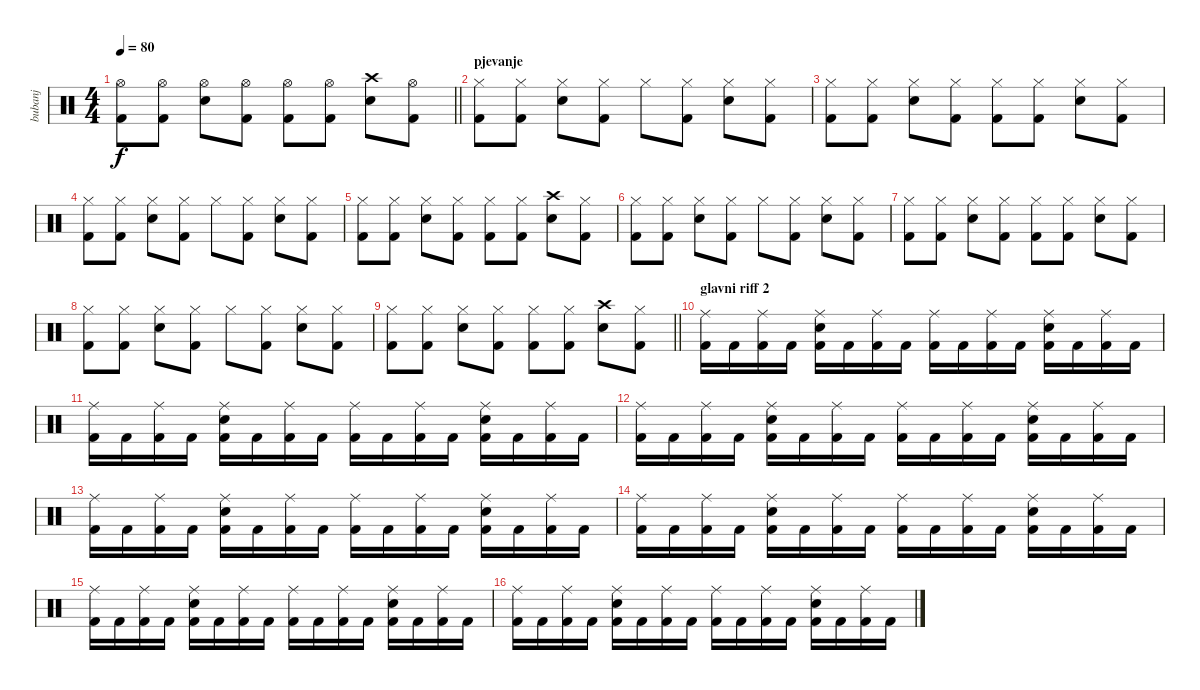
\track ("bubanj" "bubanj") {instrument percussion}
\staff {score}
\articulation defaults
\ts (4 4)
\tempo 80
\clef neutral
\barLineRight lightlight
\ks c
("Hi-Hat (open)" "Kick (hit) 2").8{dy f} ("Hi-Hat (open)" "Kick (hit) 2").8 ("Hi-Hat (open)" "Electric Snare (hit)").8 ("Hi-Hat (open)" "Kick (hit) 2").8 ("Hi-Hat (open)" "Kick (hit) 2").8 ("Hi-Hat (open)" "Kick (hit) 2").8 ("Crash high (hit)" "Electric Snare (hit)").8 ("Hi-Hat (open)" "Kick (hit) 2").8 |
\section ("" "pjevanje")
("Hi-Hat (closed)" "Kick (hit) 2").8 ("Hi-Hat (closed)" "Kick (hit) 2").8 ("Hi-Hat (closed)" "Electric Snare (hit)").8 ("Hi-Hat (closed)" "Kick (hit) 2").8 "Hi-Hat (closed)".8 ("Hi-Hat (closed)" "Kick (hit) 2").8 ("Hi-Hat (closed)" "Electric Snare (hit)").8 ("Hi-Hat (closed)" "Kick (hit) 2").8 |
("Hi-Hat (closed)" "Kick (hit) 2").8 ("Hi-Hat (closed)" "Kick (hit) 2").8 ("Hi-Hat (closed)" "Electric Snare (hit)").8 ("Hi-Hat (closed)" "Kick (hit) 2").8 ("Hi-Hat (closed)" "Kick (hit) 2").8 ("Hi-Hat (closed)" "Kick (hit) 2").8 ("Hi-Hat (closed)" "Electric Snare (hit)").8 ("Hi-Hat (closed)" "Kick (hit) 2").8 |
("Hi-Hat (closed)" "Kick (hit) 2").8 ("Hi-Hat (closed)" "Kick (hit) 2").8 ("Hi-Hat (closed)" "Electric Snare (hit)").8 ("Hi-Hat (closed)" "Kick (hit) 2").8 "Hi-Hat (closed)".8 ("Hi-Hat (closed)" "Kick (hit) 2").8 ("Hi-Hat (closed)" "Electric Snare (hit)").8 ("Hi-Hat (closed)" "Kick (hit) 2").8 |
("Hi-Hat (closed)" "Kick (hit) 2").8 ("Hi-Hat (closed)" "Kick (hit) 2").8 ("Hi-Hat (closed)" "Electric Snare (hit)").8 ("Hi-Hat (closed)" "Kick (hit) 2").8 ("Hi-Hat (closed)" "Kick (hit) 2").8 ("Hi-Hat (closed)" "Kick (hit) 2").8 ("Crash high (hit)" "Electric Snare (hit)").8 ("Hi-Hat (closed)" "Kick (hit) 2").8 |
("Hi-Hat (closed)" "Kick (hit) 2").8 ("Hi-Hat (closed)" "Kick (hit) 2").8 ("Hi-Hat (closed)" "Electric Snare (hit)").8 ("Hi-Hat (closed)" "Kick (hit) 2").8 "Hi-Hat (closed)".8 ("Hi-Hat (closed)" "Kick (hit) 2").8 ("Hi-Hat (closed)" "Electric Snare (hit)").8 ("Hi-Hat (closed)" "Kick (hit) 2").8 |
("Hi-Hat (closed)" "Kick (hit) 2").8 ("Hi-Hat (closed)" "Kick (hit) 2").8 ("Hi-Hat (closed)" "Electric Snare (hit)").8 ("Hi-Hat (closed)" "Kick (hit) 2").8 ("Hi-Hat (closed)" "Kick (hit) 2").8 ("Hi-Hat (closed)" "Kick (hit) 2").8 ("Hi-Hat (closed)" "Electric Snare (hit)").8 ("Hi-Hat (closed)" "Kick (hit) 2").8 |
("Hi-Hat (closed)" "Kick (hit) 2").8 ("Hi-Hat (closed)" "Kick (hit) 2").8 ("Hi-Hat (closed)" "Electric Snare (hit)").8 ("Hi-Hat (closed)" "Kick (hit) 2").8 "Hi-Hat (closed)".8 ("Hi-Hat (closed)" "Kick (hit) 2").8 ("Hi-Hat (closed)" "Electric Snare (hit)").8 ("Hi-Hat (closed)" "Kick (hit) 2").8 |
\barLineRight lightlight
("Hi-Hat (closed)" "Kick (hit) 2").8 ("Hi-Hat (closed)" "Kick (hit) 2").8 ("Hi-Hat (closed)" "Electric Snare (hit)").8 ("Hi-Hat (closed)" "Kick (hit) 2").8 ("Hi-Hat (closed)" "Kick (hit) 2").8 ("Hi-Hat (closed)" "Kick (hit) 2").8 ("Crash high (hit)" "Electric Snare (hit)").8 ("Hi-Hat (closed)" "Kick (hit) 2").8 |
\section ("" "glavni riff 2")
("Ride (middle)" "Kick (hit) 2").16 "Kick (hit) 2".16 ("Ride (middle)" "Kick (hit) 2").16 "Kick (hit) 2".16 ("Ride (middle)" "Electric Snare (hit)" "Kick (hit) 2").16 "Kick (hit) 2".16 ("Ride (middle)" "Kick (hit) 2").16 "Kick (hit) 2".16 ("Ride (middle)" "Kick (hit) 2").16 "Kick (hit) 2".16 ("Ride (middle)" "Kick (hit) 2").16 "Kick (hit) 2".16 ("Ride (middle)" "Electric Snare (hit)" "Kick (hit) 2").16 "Kick (hit) 2".16 ("Ride (middle)" "Kick (hit) 2").16 "Kick (hit) 2".16 |
("Ride (middle)" "Kick (hit) 2").16 "Kick (hit) 2".16 ("Ride (middle)" "Kick (hit) 2").16 "Kick (hit) 2".16 ("Ride (middle)" "Electric Snare (hit)" "Kick (hit) 2").16 "Kick (hit) 2".16 ("Ride (middle)" "Kick (hit) 2").16 "Kick (hit) 2".16 ("Ride (middle)" "Kick (hit) 2").16 "Kick (hit) 2".16 ("Ride (middle)" "Kick (hit) 2").16 "Kick (hit) 2".16 ("Ride (middle)" "Electric Snare (hit)" "Kick (hit) 2").16 "Kick (hit) 2".16 ("Ride (middle)" "Kick (hit) 2").16 "Kick (hit) 2".16 |
("Ride (middle)" "Kick (hit) 2").16 "Kick (hit) 2".16 ("Ride (middle)" "Kick (hit) 2").16 "Kick (hit) 2".16 ("Ride (middle)" "Electric Snare (hit)" "Kick (hit) 2").16 "Kick (hit) 2".16 ("Ride (middle)" "Kick (hit) 2").16 "Kick (hit) 2".16 ("Ride (middle)" "Kick (hit) 2").16 "Kick (hit) 2".16 ("Ride (middle)" "Kick (hit) 2").16 "Kick (hit) 2".16 ("Ride (middle)" "Electric Snare (hit)" "Kick (hit) 2").16 "Kick (hit) 2".16 ("Ride (middle)" "Kick (hit) 2").16 "Kick (hit) 2".16 |
("Ride (middle)" "Kick (hit) 2").16 "Kick (hit) 2".16 ("Ride (middle)" "Kick (hit) 2").16 "Kick (hit) 2".16 ("Ride (middle)" "Electric Snare (hit)" "Kick (hit) 2").16 "Kick (hit) 2".16 ("Ride (middle)" "Kick (hit) 2").16 "Kick (hit) 2".16 ("Ride (middle)" "Kick (hit) 2").16 "Kick (hit) 2".16 ("Ride (middle)" "Kick (hit) 2").16 "Kick (hit) 2".16 ("Ride (middle)" "Electric Snare (hit)" "Kick (hit) 2").16 "Kick (hit) 2".16 ("Ride (middle)" "Kick (hit) 2").16 "Kick (hit) 2".16 |
("Ride (middle)" "Kick (hit) 2").16 "Kick (hit) 2".16 ("Ride (middle)" "Kick (hit) 2").16 "Kick (hit) 2".16 ("Ride (middle)" "Electric Snare (hit)" "Kick (hit) 2").16 "Kick (hit) 2".16 ("Ride (middle)" "Kick (hit) 2").16 "Kick (hit) 2".16 ("Ride (middle)" "Kick (hit) 2").16 "Kick (hit) 2".16 ("Ride (middle)" "Kick (hit) 2").16 "Kick (hit) 2".16 ("Ride (middle)" "Electric Snare (hit)" "Kick (hit) 2").16 "Kick (hit) 2".16 ("Ride (middle)" "Kick (hit) 2").16 "Kick (hit) 2".16 |
("Ride (middle)" "Kick (hit) 2").16 "Kick (hit) 2".16 ("Ride (middle)" "Kick (hit) 2").16 "Kick (hit) 2".16 ("Ride (middle)" "Electric Snare (hit)" "Kick (hit) 2").16 "Kick (hit) 2".16 ("Ride (middle)" "Kick (hit) 2").16 "Kick (hit) 2".16 ("Ride (middle)" "Kick (hit) 2").16 "Kick (hit) 2".16 ("Ride (middle)" "Kick (hit) 2").16 "Kick (hit) 2".16 ("Ride (middle)" "Electric Snare (hit)" "Kick (hit) 2").16 "Kick (hit) 2".16 ("Ride (middle)" "Kick (hit) 2").16 "Kick (hit) 2".16 |
("Ride (middle)" "Kick (hit) 2").16 "Kick (hit) 2".16 ("Ride (middle)" "Kick (hit) 2").16 "Kick (hit) 2".16 ("Ride (middle)" "Electric Snare (hit)" "Kick (hit) 2").16 "Kick (hit) 2".16 ("Ride (middle)" "Kick (hit) 2").16 "Kick (hit) 2".16 ("Ride (middle)" "Kick (hit) 2").16 "Kick (hit) 2".16 ("Ride (middle)" "Kick (hit) 2").16 "Kick (hit) 2".16 ("Ride (middle)" "Electric Snare (hit)" "Kick (hit) 2").16 "Kick (hit) 2".16 ("Ride (middle)" "Kick (hit) 2").16 "Kick (hit) 2".16
